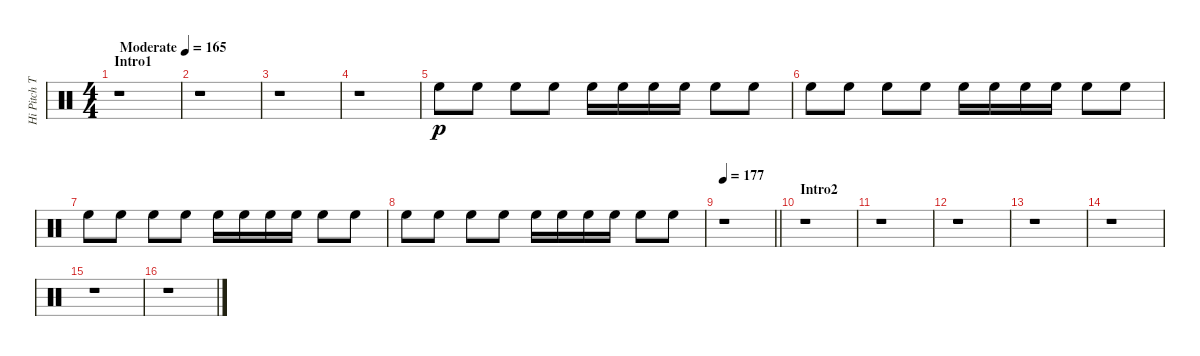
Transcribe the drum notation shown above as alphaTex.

\track ("Hi Pitch Tom" "Hi Pitch T") {instrument percussion}
\staff {score}
\articulation defaults
\ts (4 4)
\section ("" "Intro1")
\tempo (165 "Moderate")
\clef neutral
\ks c
r.1{dy p} |
r.1 |
r.1 |
r.1 |
"High Floor Tom (hit)".8 "High Floor Tom (hit)".8 "High Floor Tom (hit)".8 "High Floor Tom (hit)".8 "High Floor Tom (hit)".16 "High Floor Tom (hit)".16 "High Floor Tom (hit)".16 "High Floor Tom (hit)".16 "High Floor Tom (hit)".8 "High Floor Tom (hit)".8 |
"High Floor Tom (hit)".8 "High Floor Tom (hit)".8 "High Floor Tom (hit)".8 "High Floor Tom (hit)".8 "High Floor Tom (hit)".16 "High Floor Tom (hit)".16 "High Floor Tom (hit)".16 "High Floor Tom (hit)".16 "High Floor Tom (hit)".8 "High Floor Tom (hit)".8 |
"High Floor Tom (hit)".8 "High Floor Tom (hit)".8 "High Floor Tom (hit)".8 "High Floor Tom (hit)".8 "High Floor Tom (hit)".16 "High Floor Tom (hit)".16 "High Floor Tom (hit)".16 "High Floor Tom (hit)".16 "High Floor Tom (hit)".8 "High Floor Tom (hit)".8 |
"High Floor Tom (hit)".8 "High Floor Tom (hit)".8 "High Floor Tom (hit)".8 "High Floor Tom (hit)".8 "High Floor Tom (hit)".16 "High Floor Tom (hit)".16 "High Floor Tom (hit)".16 "High Floor Tom (hit)".16 "High Floor Tom (hit)".8 "High Floor Tom (hit)".8 |
\tempo 177
\barLineRight lightlight
r.1 |
\section ("" "Intro2")
r.1 |
r.1 |
r.1 |
r.1 |
r.1 |
r.1 |
r.1
